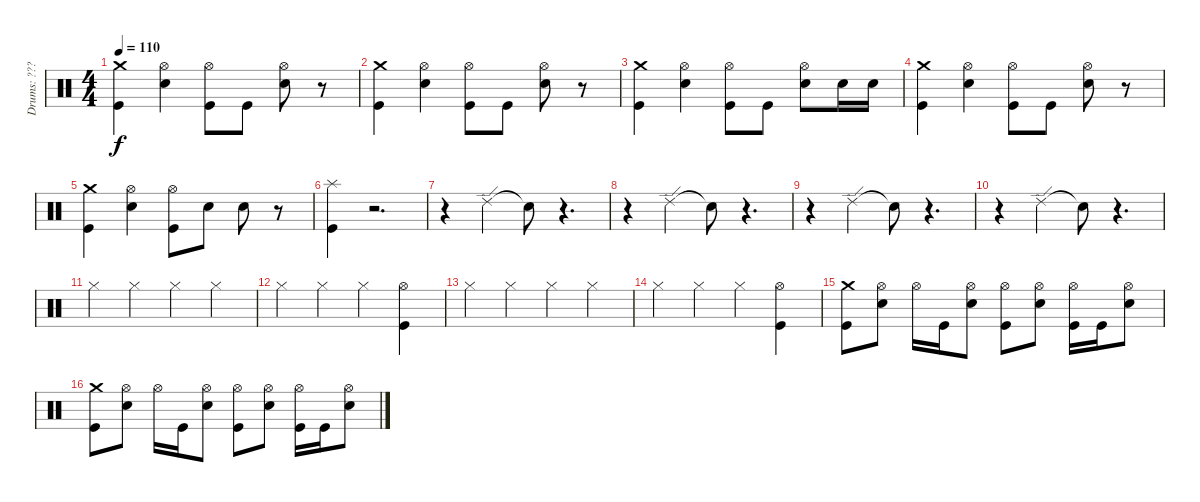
\track ("Drums: ???" "Drums: ???") {instrument percussion}
\staff {score}
\articulation defaults
\ts (4 4)
\tempo 110
\clef neutral
\ks c
("Crash medium (hit)" "Kick (hit)").4{dy f} ("Electric Snare (hit)" "Hi-Hat (open)").4 ("Kick (hit)" "Hi-Hat (open)").8 "Kick (hit)".8 ("Electric Snare (hit)" "Hi-Hat (open)").8 r.8 |
("Crash medium (hit)" "Kick (hit)").4 ("Electric Snare (hit)" "Hi-Hat (open)").4 ("Kick (hit)" "Hi-Hat (open)").8 "Kick (hit)".8 ("Electric Snare (hit)" "Hi-Hat (open)").8 r.8 |
("Crash medium (hit)" "Kick (hit)").4 ("Electric Snare (hit)" "Hi-Hat (open)").4 ("Kick (hit)" "Hi-Hat (open)").8 "Kick (hit)".8 ("Electric Snare (hit)" "Hi-Hat (open)").8 "Electric Snare (hit)".16 "Electric Snare (hit)".16 |
("Crash medium (hit)" "Kick (hit)").4 ("Electric Snare (hit)" "Hi-Hat (open)").4 ("Kick (hit)" "Hi-Hat (open)").8 "Kick (hit)".8 ("Electric Snare (hit)" "Hi-Hat (open)").8 r.8 |
("Crash medium (hit)" "Kick (hit)").4 ("Electric Snare (hit)" "Hi-Hat (open)").4 ("Kick (hit)" "Hi-Hat (open)").8 "Electric Snare (hit)".8 "Electric Snare (hit)".8 r.8 |
("Kick (hit)" "Splash (hit)").4 r.2{d} |
r.4 "Ride (edge) 2".4 "Snare (hit)"{t}.8 r.4{d} |
r.4 "Ride (edge) 2".4 "Snare (hit)"{t}.8 r.4{d} |
r.4 "Ride (edge) 2".4 "Snare (hit)"{t}.8 r.4{d} |
r.4 "Ride (edge) 2".4 "Snare (hit)"{t}.8 r.4{d} |
"Hi-Hat (closed)".4 "Hi-Hat (closed)".4 "Hi-Hat (closed)".4 "Hi-Hat (closed)".4 |
"Hi-Hat (closed)".4 "Hi-Hat (closed)".4 "Hi-Hat (closed)".4 ("Hi-Hat (open)" "Kick (hit)").4 |
"Hi-Hat (closed)".4 "Hi-Hat (closed)".4 "Hi-Hat (closed)".4 "Hi-Hat (closed)".4 |
"Hi-Hat (closed)".4 "Hi-Hat (closed)".4 "Hi-Hat (closed)".4 ("Hi-Hat (open)" "Kick (hit)").4 |
("Crash medium (hit)" "Kick (hit)").8 ("Hi-Hat (open)" "Electric Snare (hit)").8 "Hi-Hat (open)".16 "Kick (hit)".16 ("Hi-Hat (open)" "Electric Snare (hit)").8 ("Hi-Hat (open)" "Kick (hit)").8 ("Hi-Hat (open)" "Electric Snare (hit)").8 ("Hi-Hat (open)" "Kick (hit)").16 "Kick (hit)".16 ("Hi-Hat (open)" "Electric Snare (hit)").8 |
("Crash medium (hit)" "Kick (hit)").8 ("Hi-Hat (open)" "Electric Snare (hit)").8 "Hi-Hat (open)".16 "Kick (hit)".16 ("Hi-Hat (open)" "Electric Snare (hit)").8 ("Hi-Hat (open)" "Kick (hit)").8 ("Hi-Hat (open)" "Electric Snare (hit)").8 ("Hi-Hat (open)" "Kick (hit)").16 "Kick (hit)".16 ("Hi-Hat (open)" "Electric Snare (hit)").8
